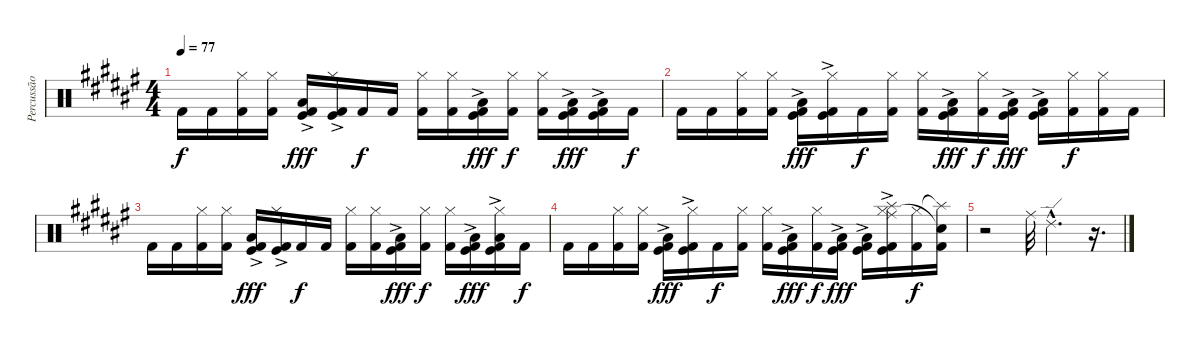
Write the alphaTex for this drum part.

\track ("Percussão" "Percussão") {instrument percussion}
\staff {score}
\articulation defaults
\ts (4 4)
\tempo 77
\clef neutral
\ks d#minor "Kick (hit) 2".16{dy f} "Kick (hit) 2".16
("Kick (hit) 2" "Hi-Hat (closed)").16 ("Kick (hit) 2" "Hi-Hat (closed)").16 ("Kick (hit)"{ac} "Kick (hit) 2" "Low Floor Tom (hit)").16{dy fff} ("Kick (hit)"{ac} "Kick (hit) 2" "Hi-Hat (closed)").16 "Kick (hit) 2".16{dy f} "Kick (hit) 2".16 ("Kick (hit) 2" "Hi-Hat (closed)").16 ("Kick (hit) 2" "Hi-Hat (closed)").16 ("Kick (hit)" "Kick (hit) 2"{ac} "Low Floor Tom (hit)").16{dy fff} ("Kick (hit) 2" "Hi-Hat (closed)").16{dy f} ("Kick (hit) 2" "Hi-Hat (closed)").16 ("Kick (hit)" "Kick (hit) 2"{ac} "Low Floor Tom (hit)").16{dy fff} ("Kick (hit)" "Kick (hit) 2"{ac} "Low Floor Tom (hit)").16 "Kick (hit) 2".16{dy f} |
"Kick (hit) 2".16 "Kick (hit) 2".16 ("Kick (hit) 2" "Hi-Hat (closed)").16 ("Kick (hit) 2" "Hi-Hat (closed)").16 ("Kick (hit)"{ac} "Kick (hit) 2" "Low Floor Tom (hit)").16{dy fff} ("Kick (hit)"{ac} "Kick (hit) 2" "Hi-Hat (closed)").16 "Kick (hit) 2".16{dy f} ("Kick (hit) 2" "Hi-Hat (closed)").16 ("Kick (hit) 2" "Hi-Hat (closed)").16 ("Kick (hit)" "Kick (hit) 2"{ac} "Low Floor Tom (hit)").16{dy fff} ("Kick (hit) 2" "Hi-Hat (closed)").16{dy f} ("Kick (hit)" "Kick (hit) 2"{ac} "Low Floor Tom (hit)").16{dy fff} ("Kick (hit)" "Kick (hit) 2"{ac} "Low Floor Tom (hit)").16 ("Kick (hit) 2" "Hi-Hat (closed)").16{dy f} ("Kick (hit) 2" "Hi-Hat (closed)").16 "Kick (hit) 2".16 |
"Kick (hit) 2".16 "Kick (hit) 2".16 ("Kick (hit) 2" "Hi-Hat (closed)").16 ("Kick (hit) 2" "Hi-Hat (closed)").16 ("Kick (hit)"{ac} "Kick (hit) 2" "Low Floor Tom (hit)").16{dy fff} ("Kick (hit)"{ac} "Kick (hit) 2" "Hi-Hat (closed)").16 "Kick (hit) 2".16{dy f} "Kick (hit) 2".16 ("Kick (hit) 2" "Hi-Hat (closed)").16 ("Kick (hit) 2" "Hi-Hat (closed)").16 ("Kick (hit)" "Kick (hit) 2"{ac} "Low Floor Tom (hit)").16{dy fff} ("Kick (hit) 2" "Hi-Hat (closed)").16{dy f} ("Kick (hit) 2" "Hi-Hat (closed)").16 ("Kick (hit)" "Kick (hit) 2"{ac} "Low Floor Tom (hit)").16{dy fff} ("Kick (hit)" "Kick (hit) 2"{ac} "Hi-Hat (closed)" "Low Floor Tom (hit)").16 "Kick (hit) 2".16{dy f} |
"Kick (hit) 2".16 "Kick (hit) 2".16 ("Kick (hit) 2" "Hi-Hat (closed)").16 ("Kick (hit) 2" "Hi-Hat (closed)").16 ("Kick (hit)"{ac} "Kick (hit) 2" "Low Floor Tom (hit)").16{dy fff} ("Kick (hit)"{ac} "Kick (hit) 2" "Hi-Hat (closed)").16 "Kick (hit) 2".16{dy f} ("Kick (hit) 2" "Hi-Hat (closed)").16 ("Kick (hit) 2" "Hi-Hat (closed)").16 ("Kick (hit)" "Kick (hit) 2"{ac} "Low Floor Tom (hit)").16{dy fff} ("Kick (hit) 2" "Hi-Hat (closed)").16{dy f} ("Kick (hit)" "Kick (hit) 2"{ac} "Low Floor Tom (hit)").16{dy fff} ("Kick (hit)" "Kick (hit) 2"{ac} "Low Floor Tom (hit)").16 ("Kick (hit)" "Kick (hit) 2"{ac} "Hi-Hat (closed)" "Ride (middle)" "Splash (hit)").16 ("Kick (hit) 2" "Hi-Hat (closed)").16{dy f} ("Kick (hit) 2" "Splash (hit)"{t} "Snare (hit)"{t}).16 |
r.2 "Ride (middle)".32 "Ride (edge) 2"{hac}.4{d} r.16{d}
